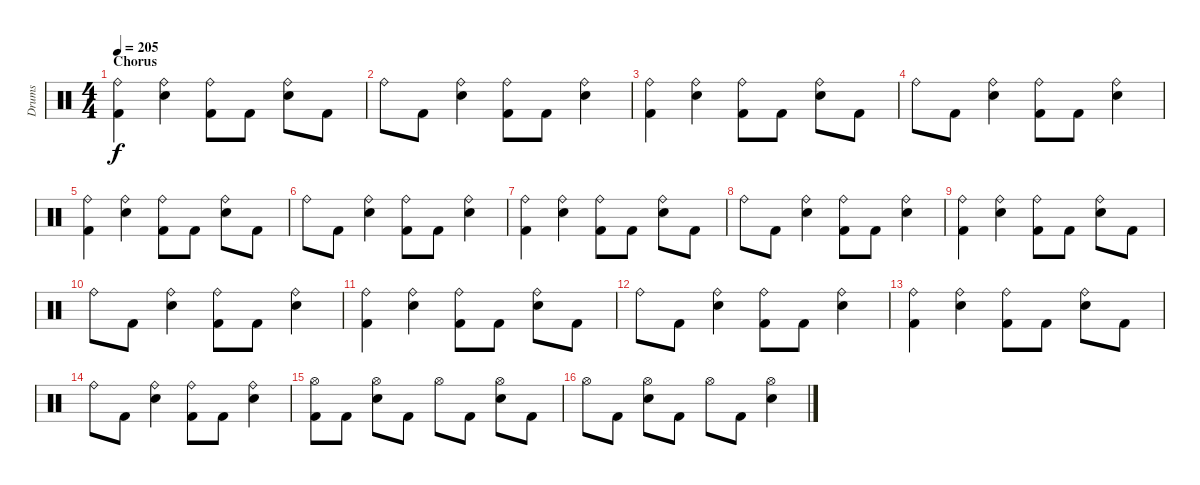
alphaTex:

\track ("Drums" "Drums") {instrument percussion}
\staff {score}
\articulation defaults
\ts (4 4)
\section ("" "Chorus")
\tempo 205
\clef neutral
\ks c
("Ride (bell)" "Kick (hit) 2").4{dy f} ("Ride (bell)" "Snare (hit) 2").4 ("Ride (bell)" "Kick (hit) 2").8 "Kick (hit) 2".8 ("Ride (bell)" "Snare (hit) 2").8 "Kick (hit) 2".8 |
"Ride (bell)".8 "Kick (hit) 2".8 ("Ride (bell)" "Snare (hit) 2").4 ("Ride (bell)" "Kick (hit) 2").8 "Kick (hit) 2".8 ("Ride (bell)" "Snare (hit) 2").4 |
("Ride (bell)" "Kick (hit) 2").4 ("Ride (bell)" "Snare (hit) 2").4 ("Ride (bell)" "Kick (hit) 2").8 "Kick (hit) 2".8 ("Ride (bell)" "Snare (hit) 2").8 "Kick (hit) 2".8 |
"Ride (bell)".8 "Kick (hit) 2".8 ("Ride (bell)" "Snare (hit) 2").4 ("Ride (bell)" "Kick (hit) 2").8 "Kick (hit) 2".8 ("Ride (bell)" "Snare (hit) 2").4 |
("Ride (bell)" "Kick (hit) 2").4 ("Ride (bell)" "Snare (hit) 2").4 ("Ride (bell)" "Kick (hit) 2").8 "Kick (hit) 2".8 ("Ride (bell)" "Snare (hit) 2").8 "Kick (hit) 2".8 |
"Ride (bell)".8 "Kick (hit) 2".8 ("Ride (bell)" "Snare (hit) 2").4 ("Ride (bell)" "Kick (hit) 2").8 "Kick (hit) 2".8 ("Ride (bell)" "Snare (hit) 2").4 |
("Ride (bell)" "Kick (hit) 2").4 ("Ride (bell)" "Snare (hit) 2").4 ("Ride (bell)" "Kick (hit) 2").8 "Kick (hit) 2".8 ("Ride (bell)" "Snare (hit) 2").8 "Kick (hit) 2".8 |
"Ride (bell)".8 "Kick (hit) 2".8 ("Ride (bell)" "Snare (hit) 2").4 ("Ride (bell)" "Kick (hit) 2").8 "Kick (hit) 2".8 ("Ride (bell)" "Snare (hit) 2").4 |
("Ride (bell)" "Kick (hit) 2").4 ("Ride (bell)" "Snare (hit) 2").4 ("Ride (bell)" "Kick (hit) 2").8 "Kick (hit) 2".8 ("Ride (bell)" "Snare (hit) 2").8 "Kick (hit) 2".8 |
"Ride (bell)".8 "Kick (hit) 2".8 ("Ride (bell)" "Snare (hit) 2").4 ("Ride (bell)" "Kick (hit) 2").8 "Kick (hit) 2".8 ("Ride (bell)" "Snare (hit) 2").4 |
("Ride (bell)" "Kick (hit) 2").4 ("Ride (bell)" "Snare (hit) 2").4 ("Ride (bell)" "Kick (hit) 2").8 "Kick (hit) 2".8 ("Ride (bell)" "Snare (hit) 2").8 "Kick (hit) 2".8 |
"Ride (bell)".8 "Kick (hit) 2".8 ("Ride (bell)" "Snare (hit) 2").4 ("Ride (bell)" "Kick (hit) 2").8 "Kick (hit) 2".8 ("Ride (bell)" "Snare (hit) 2").4 |
("Ride (bell)" "Kick (hit) 2").4 ("Ride (bell)" "Snare (hit) 2").4 ("Ride (bell)" "Kick (hit) 2").8 "Kick (hit) 2".8 ("Ride (bell)" "Snare (hit) 2").8 "Kick (hit) 2".8 |
"Ride (bell)".8 "Kick (hit) 2".8 ("Ride (bell)" "Snare (hit) 2").4 ("Ride (bell)" "Kick (hit) 2").8 "Kick (hit) 2".8 ("Ride (bell)" "Snare (hit) 2").4 |
("Hi-Hat (open)" "Kick (hit) 2").8 "Kick (hit) 2".8 ("Hi-Hat (open)" "Snare (hit) 2").8 "Kick (hit) 2".8 "Hi-Hat (open)".8 "Kick (hit) 2".8 ("Hi-Hat (open)" "Snare (hit) 2").8 "Kick (hit) 2".8 |
"Hi-Hat (open)".8 "Kick (hit) 2".8 ("Hi-Hat (open)" "Snare (hit) 2").8 "Kick (hit) 2".8 "Hi-Hat (open)".8 "Kick (hit) 2".8 ("Hi-Hat (open)" "Snare (hit) 2").4
